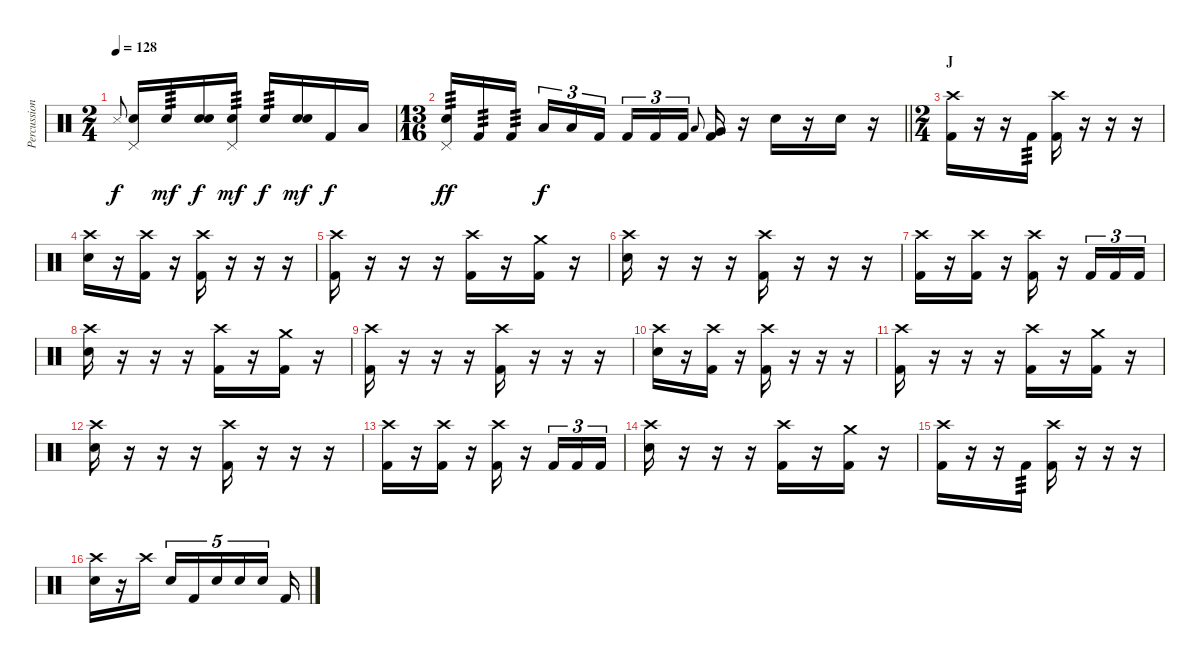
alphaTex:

\track ("Percussion" "Percussion") {instrument percussion}
\staff {score}
\articulation defaults
\ts (2 4)
\tempo 128
\clef neutral
\ks c "Metronome (hit)".8{gr onbeat dy f}
("Pedal Hi-Hat (hit)" "Snare (hit) 2").16 "Snare (hit) 2".16{tp 3 dy mf} ("Snare (hit)" "Snare (hit) 2").16{dy f} ("Pedal Hi-Hat (hit)" "Snare (hit) 2").16{tp 3 dy mf} "Snare (hit) 2".16{tp 3 dy f} ("Snare (hit)" "Snare (hit) 2").16{dy mf} "Kick (hit) 2".16{dy f} "Low Floor Tom (hit)".16 |
\ts (13 16)
\barLineRight lightlight
("Pedal Hi-Hat (hit)" "Snare (hit) 2").16{tp 3 dy ff} "Kick (hit) 2".16{tp 3} "Kick (hit) 2".16{tp 3} "Low Tom (hit)".16{tu (3 2) dy f} "Low Tom (hit)".16{tu (3 2)} "Kick (hit) 2".16{tu (3 2)} "Kick (hit) 2".16{tu (3 2)} "Kick (hit) 2".16{tu (3 2)} "Kick (hit) 2".16{tu (3 2)} "Low Tom (hit)".8{gr onbeat} ("Very Low Tom (hit)" "Kick (hit) 2").16 r.16 "Snare (hit)".16 r.16 "Snare (hit)".16 r.16 |
\ts (2 4)
\section ("" "J")
("Crash high (hit)" "Kick (hit) 2").16 r.16 r.16 "Kick (hit) 2".16{tp 3} ("Crash high (hit)" "Kick (hit) 2").16 r.16 r.16 r.16 |
("Crash high (hit)" "Snare (hit) 2").16 r.16 ("Crash high (hit)" "Kick (hit) 2").16 r.16 ("Crash high (hit)" "Kick (hit) 2").16 r.16 r.16 r.16 |
("Crash high (hit)" "Kick (hit) 2").16 r.16 r.16 r.16 ("Crash high (hit)" "Kick (hit) 2").16 r.16 ("Crash medium (hit)" "Kick (hit) 2").16 r.16 |
("Crash high (hit)" "Snare (hit) 2").16 r.16 r.16 r.16 ("Crash high (hit)" "Kick (hit) 2").16 r.16 r.16 r.16 |
("Crash high (hit)" "Kick (hit) 2").16 r.16 ("Crash high (hit)" "Kick (hit) 2").16 r.16 ("Crash high (hit)" "Kick (hit) 2").16 r.16 "Kick (hit) 2".16{tu (3 2)} "Kick (hit) 2".16{tu (3 2)} "Kick (hit) 2".16{tu (3 2)} |
("Crash high (hit)" "Snare (hit) 2").16 r.16 r.16 r.16 ("Crash high (hit)" "Kick (hit) 2").16 r.16 ("Crash medium (hit)" "Kick (hit) 2").16 r.16 |
("Crash high (hit)" "Kick (hit) 2").16 r.16 r.16 r.16 ("Crash high (hit)" "Kick (hit) 2").16 r.16 r.16 r.16 |
("Crash high (hit)" "Snare (hit) 2").16 r.16 ("Crash high (hit)" "Kick (hit) 2").16 r.16 ("Crash high (hit)" "Kick (hit) 2").16 r.16 r.16 r.16 |
("Crash high (hit)" "Kick (hit) 2").16 r.16 r.16 r.16 ("Crash high (hit)" "Kick (hit) 2").16 r.16 ("Crash medium (hit)" "Kick (hit) 2").16 r.16 |
("Crash high (hit)" "Snare (hit) 2").16 r.16 r.16 r.16 ("Crash high (hit)" "Kick (hit) 2").16 r.16 r.16 r.16 |
("Crash high (hit)" "Kick (hit) 2").16 r.16 ("Crash high (hit)" "Kick (hit) 2").16 r.16 ("Crash high (hit)" "Kick (hit) 2").16 r.16 "Kick (hit) 2".16{tu (3 2)} "Kick (hit) 2".16{tu (3 2)} "Kick (hit) 2".16{tu (3 2)} |
("Crash high (hit)" "Snare (hit) 2").16 r.16 r.16 r.16 ("Crash high (hit)" "Kick (hit) 2").16 r.16 ("Crash medium (hit)" "Kick (hit) 2").16 r.16 |
("Crash high (hit)" "Kick (hit) 2").16 r.16 r.16 "Kick (hit) 2".16{tp 3} ("Crash high (hit)" "Kick (hit) 2").16 r.16 r.16 r.16 |
("Crash high (hit)" "Snare (hit) 2").16 r.16 "Crash high (hit)".16{beam splitsecondary} "Snare (hit) 2".16{tu (5 4)} "Kick (hit) 2".16{tu (5 4)} "Snare (hit) 2".16{tu (5 4)} "Snare (hit) 2".16{tu (5 4)} "Snare (hit) 2".16{tu (5 4) beam splitsecondary} "Kick (hit) 2".16
